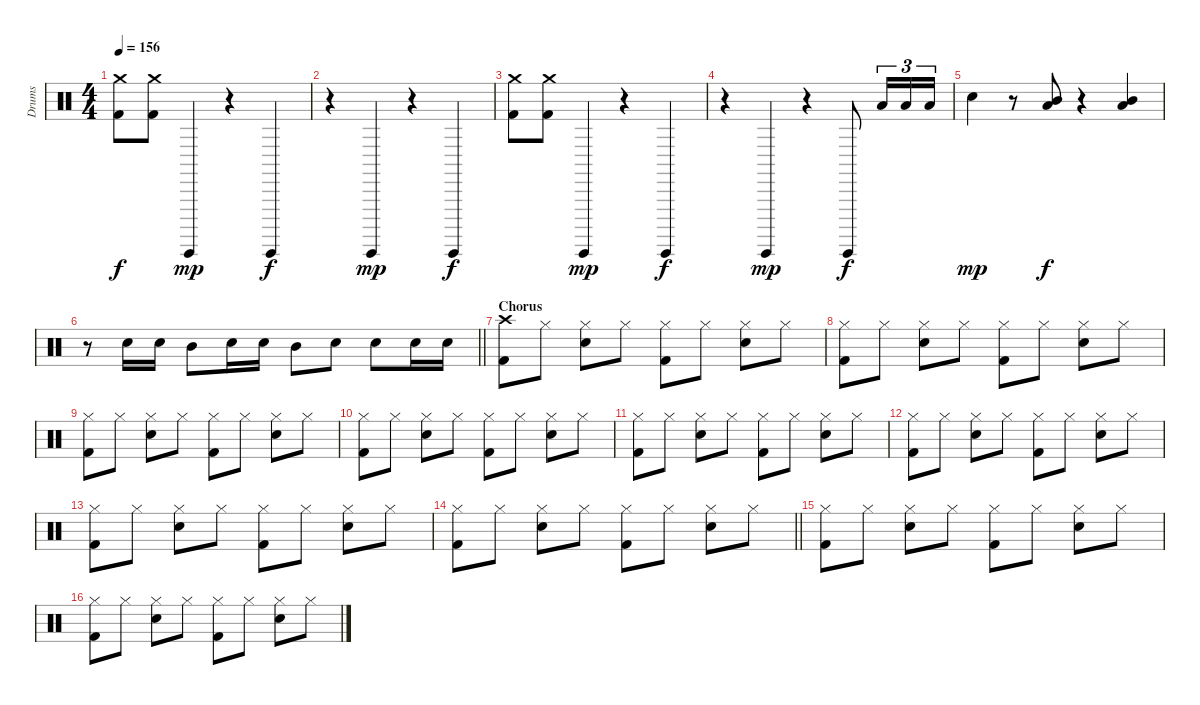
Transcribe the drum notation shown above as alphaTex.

\track ("Drums" "Drums") {instrument percussion}
\staff {score}
\articulation defaults
\ts (4 4)
\tempo 156
\clef neutral
\ks c
("Crash medium (hit)" "Kick (hit) 2").8{dy f} ("Crash medium (hit)" "Kick (hit) 2").8 "Guiro (hit)".4{dy mp} r.4 "Guiro (hit)".4{dy f} |
r.4 "Guiro (hit)".4{dy mp} r.4 "Guiro (hit)".4{dy f} |
("Crash medium (hit)" "Kick (hit) 2").8 ("Crash medium (hit)" "Kick (hit) 2").8 "Guiro (hit)".4{dy mp} r.4 "Guiro (hit)".4{dy f} |
r.4 "Guiro (hit)".4{dy mp} r.4 "Guiro (hit)".8{dy f} "Low Tom (hit)".16{tu (3 2)} "Low Tom (hit)".16{tu (3 2)} "Low Tom (hit)".16{tu (3 2)} |
"Electric Snare (hit)".4{dy mp} r.8 ("Mid Tom (hit)" "Low Tom (hit)").8{dy f} r.4 ("Mid Tom (hit)" "Low Tom (hit)").4 |
\barLineRight lightlight
r.8 "Electric Snare (hit)".16 "Electric Snare (hit)".16 "Mid Tom (hit)".8 "Electric Snare (hit)".16 "Electric Snare (hit)".16 "Mid Tom (hit)".8 "Electric Snare (hit)".8 "Electric Snare (hit)".8 "Electric Snare (hit)".16 "Electric Snare (hit)".16 |
\section ("" "Chorus")
("Crash high (hit)" "Kick (hit) 2").8 "Hi-Hat (closed)".8 ("Hi-Hat (closed)" "Electric Snare (hit)").8 "Hi-Hat (closed)".8 ("Hi-Hat (closed)" "Kick (hit) 2").8 "Hi-Hat (closed)".8 ("Hi-Hat (closed)" "Electric Snare (hit)").8 "Hi-Hat (closed)".8 |
("Hi-Hat (closed)" "Kick (hit) 2").8 "Hi-Hat (closed)".8 ("Hi-Hat (closed)" "Electric Snare (hit)").8 "Hi-Hat (closed)".8 ("Hi-Hat (closed)" "Kick (hit) 2").8 "Hi-Hat (closed)".8 ("Hi-Hat (closed)" "Electric Snare (hit)").8 "Hi-Hat (closed)".8 |
("Hi-Hat (closed)" "Kick (hit) 2").8 "Hi-Hat (closed)".8 ("Hi-Hat (closed)" "Electric Snare (hit)").8 "Hi-Hat (closed)".8 ("Hi-Hat (closed)" "Kick (hit) 2").8 "Hi-Hat (closed)".8 ("Hi-Hat (closed)" "Electric Snare (hit)").8 "Hi-Hat (closed)".8 |
("Hi-Hat (closed)" "Kick (hit) 2").8 "Hi-Hat (closed)".8 ("Hi-Hat (closed)" "Electric Snare (hit)").8 "Hi-Hat (closed)".8 ("Hi-Hat (closed)" "Kick (hit) 2").8 "Hi-Hat (closed)".8 ("Hi-Hat (closed)" "Electric Snare (hit)").8 "Hi-Hat (closed)".8 |
("Hi-Hat (closed)" "Kick (hit) 2").8 "Hi-Hat (closed)".8 ("Hi-Hat (closed)" "Electric Snare (hit)").8 "Hi-Hat (closed)".8 ("Hi-Hat (closed)" "Kick (hit) 2").8 "Hi-Hat (closed)".8 ("Hi-Hat (closed)" "Electric Snare (hit)").8 "Hi-Hat (closed)".8 |
("Hi-Hat (closed)" "Kick (hit) 2").8 "Hi-Hat (closed)".8 ("Hi-Hat (closed)" "Electric Snare (hit)").8 "Hi-Hat (closed)".8 ("Hi-Hat (closed)" "Kick (hit) 2").8 "Hi-Hat (closed)".8 ("Hi-Hat (closed)" "Electric Snare (hit)").8 "Hi-Hat (closed)".8 |
("Hi-Hat (closed)" "Kick (hit) 2").8 "Hi-Hat (closed)".8 ("Hi-Hat (closed)" "Electric Snare (hit)").8 "Hi-Hat (closed)".8 ("Hi-Hat (closed)" "Kick (hit) 2").8 "Hi-Hat (closed)".8 ("Hi-Hat (closed)" "Electric Snare (hit)").8 "Hi-Hat (closed)".8 |
\barLineRight lightlight
("Hi-Hat (closed)" "Kick (hit) 2").8 "Hi-Hat (closed)".8 ("Hi-Hat (closed)" "Electric Snare (hit)").8 "Hi-Hat (closed)".8 ("Hi-Hat (closed)" "Kick (hit) 2").8 "Hi-Hat (closed)".8 ("Hi-Hat (closed)" "Electric Snare (hit)").8 "Hi-Hat (closed)".8 |
("Hi-Hat (closed)" "Kick (hit) 2").8 "Hi-Hat (closed)".8 ("Hi-Hat (closed)" "Electric Snare (hit)").8 "Hi-Hat (closed)".8 ("Hi-Hat (closed)" "Kick (hit) 2").8 "Hi-Hat (closed)".8 ("Hi-Hat (closed)" "Electric Snare (hit)").8 "Hi-Hat (closed)".8 |
("Hi-Hat (closed)" "Kick (hit) 2").8 "Hi-Hat (closed)".8 ("Hi-Hat (closed)" "Electric Snare (hit)").8 "Hi-Hat (closed)".8 ("Hi-Hat (closed)" "Kick (hit) 2").8 "Hi-Hat (closed)".8 ("Hi-Hat (closed)" "Electric Snare (hit)").8 "Hi-Hat (closed)".8
